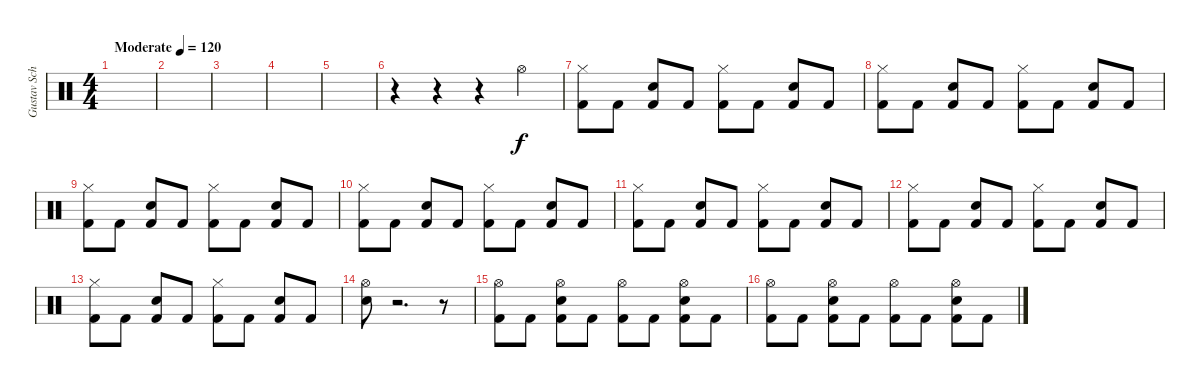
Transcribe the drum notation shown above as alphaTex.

\track ("Gustav Schäfer" "Gustav Sch") {instrument percussion}
\staff {score}
\articulation defaults
\ts (4 4)
\tempo (120 "Moderate")
\clef neutral
\ks c
|
|
|
|
|
r.4 r.4 r.4 "Hi-Hat (open)".4 |
("Hi-Hat (closed)" "Kick (hit) 2").8 "Kick (hit) 2".8 ("Electric Snare (hit)" "Kick (hit) 2").8 "Kick (hit) 2".8 ("Hi-Hat (closed)" "Kick (hit) 2").8 "Kick (hit) 2".8 ("Electric Snare (hit)" "Kick (hit) 2").8 "Kick (hit) 2".8 |
("Hi-Hat (closed)" "Kick (hit) 2").8 "Kick (hit) 2".8 ("Electric Snare (hit)" "Kick (hit) 2").8 "Kick (hit) 2".8 ("Hi-Hat (closed)" "Kick (hit) 2").8 "Kick (hit) 2".8 ("Electric Snare (hit)" "Kick (hit) 2").8 "Kick (hit) 2".8 |
("Hi-Hat (closed)" "Kick (hit) 2").8 "Kick (hit) 2".8 ("Electric Snare (hit)" "Kick (hit) 2").8 "Kick (hit) 2".8 ("Hi-Hat (closed)" "Kick (hit) 2").8 "Kick (hit) 2".8 ("Electric Snare (hit)" "Kick (hit) 2").8 "Kick (hit) 2".8 |
("Hi-Hat (closed)" "Kick (hit) 2").8 "Kick (hit) 2".8 ("Electric Snare (hit)" "Kick (hit) 2").8 "Kick (hit) 2".8 ("Hi-Hat (closed)" "Kick (hit) 2").8 "Kick (hit) 2".8 ("Electric Snare (hit)" "Kick (hit) 2").8 "Kick (hit) 2".8 |
("Hi-Hat (closed)" "Kick (hit) 2").8 "Kick (hit) 2".8 ("Electric Snare (hit)" "Kick (hit) 2").8 "Kick (hit) 2".8 ("Hi-Hat (closed)" "Kick (hit) 2").8 "Kick (hit) 2".8 ("Electric Snare (hit)" "Kick (hit) 2").8 "Kick (hit) 2".8 |
("Hi-Hat (closed)" "Kick (hit) 2").8 "Kick (hit) 2".8 ("Electric Snare (hit)" "Kick (hit) 2").8 "Kick (hit) 2".8 ("Hi-Hat (closed)" "Kick (hit) 2").8 "Kick (hit) 2".8 ("Electric Snare (hit)" "Kick (hit) 2").8 "Kick (hit) 2".8 |
("Hi-Hat (closed)" "Kick (hit) 2").8 "Kick (hit) 2".8 ("Electric Snare (hit)" "Kick (hit) 2").8 "Kick (hit) 2".8 ("Hi-Hat (closed)" "Kick (hit) 2").8 "Kick (hit) 2".8 ("Electric Snare (hit)" "Kick (hit) 2").8 "Kick (hit) 2".8 |
("Hi-Hat (open)" "Electric Snare (hit)").8 r.2{d} r.8 |
("Hi-Hat (open)" "Kick (hit) 2").8 "Kick (hit) 2".8 ("Hi-Hat (open)" "Electric Snare (hit)" "Kick (hit) 2").8 "Kick (hit) 2".8 ("Hi-Hat (open)" "Kick (hit) 2").8 "Kick (hit) 2".8 ("Hi-Hat (open)" "Electric Snare (hit)" "Kick (hit) 2").8 "Kick (hit) 2".8 |
("Hi-Hat (open)" "Kick (hit) 2").8 "Kick (hit) 2".8 ("Hi-Hat (open)" "Electric Snare (hit)" "Kick (hit) 2").8 "Kick (hit) 2".8 ("Hi-Hat (open)" "Kick (hit) 2").8 "Kick (hit) 2".8 ("Hi-Hat (open)" "Electric Snare (hit)" "Kick (hit) 2").8 "Kick (hit) 2".8
